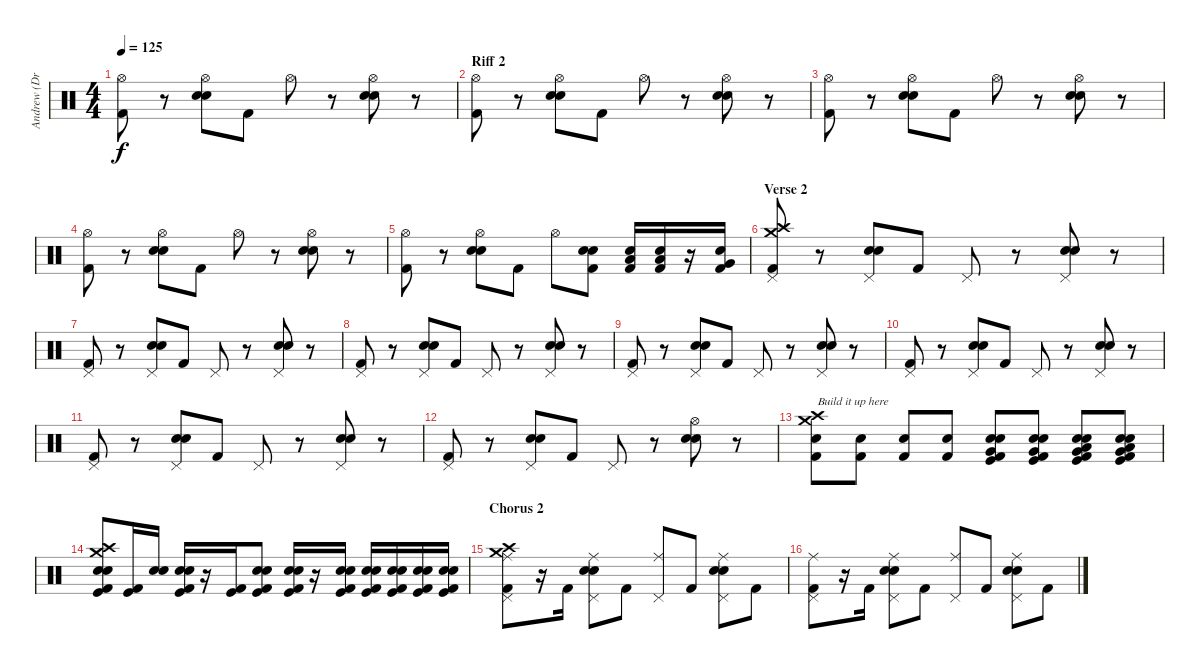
\track ("Andrew (Drums)" "Andrew (Dr") {instrument percussion}
\staff {score}
\articulation defaults
\ts (4 4)
\tempo 125
\clef neutral
\ks c
("Hi-Hat (open)" "Kick (hit) 2").8{dy f} r.8 ("Hi-Hat (open)" "Snare (hit) 2" "Electric Snare (hit)").8 "Kick (hit) 2".8 "Hi-Hat (open)".8 r.8 ("Hi-Hat (open)" "Snare (hit) 2" "Electric Snare (hit)").8 r.8 |
\section ("" "Riff 2")
("Hi-Hat (open)" "Kick (hit) 2").8 r.8 ("Hi-Hat (open)" "Snare (hit) 2" "Electric Snare (hit)").8 "Kick (hit) 2".8 "Hi-Hat (open)".8 r.8 ("Hi-Hat (open)" "Snare (hit) 2" "Electric Snare (hit)").8 r.8 |
("Hi-Hat (open)" "Kick (hit) 2").8 r.8 ("Hi-Hat (open)" "Snare (hit) 2" "Electric Snare (hit)").8 "Kick (hit) 2".8 "Hi-Hat (open)".8 r.8 ("Hi-Hat (open)" "Snare (hit) 2" "Electric Snare (hit)").8 r.8 |
("Hi-Hat (open)" "Kick (hit) 2").8 r.8 ("Hi-Hat (open)" "Snare (hit) 2" "Electric Snare (hit)").8 "Kick (hit) 2".8 "Hi-Hat (open)".8 r.8 ("Hi-Hat (open)" "Snare (hit) 2" "Electric Snare (hit)").8 r.8 |
("Hi-Hat (open)" "Kick (hit) 2").8 r.8 ("Hi-Hat (open)" "Snare (hit) 2" "Electric Snare (hit)").8 "Kick (hit) 2".8 "Hi-Hat (open)".8 ("Kick (hit) 2" "Snare (hit) 2" "Electric Snare (hit)").8 ("Kick (hit) 2" "Low Tom (hit)" "Electric Snare (hit)").16 ("Kick (hit) 2" "Low Tom (hit)" "Electric Snare (hit)").16 r.16 ("Kick (hit) 2" "Very Low Tom (hit)" "Electric Snare (hit)").16 |
\section ("" "Verse 2")
("Crash high (hit)" "Crash medium (hit)" "Pedal Hi-Hat (hit)" "Kick (hit) 2").8 r.8 ("Pedal Hi-Hat (hit)" "Snare (hit) 2" "Electric Snare (hit)").8 "Kick (hit) 2".8 "Pedal Hi-Hat (hit)".8 r.8 ("Pedal Hi-Hat (hit)" "Snare (hit) 2" "Electric Snare (hit)").8 r.8 |
("Pedal Hi-Hat (hit)" "Kick (hit) 2").8 r.8 ("Pedal Hi-Hat (hit)" "Snare (hit) 2" "Electric Snare (hit)").8 "Kick (hit) 2".8 "Pedal Hi-Hat (hit)".8 r.8 ("Pedal Hi-Hat (hit)" "Snare (hit) 2" "Electric Snare (hit)").8 r.8 |
("Pedal Hi-Hat (hit)" "Kick (hit) 2").8 r.8 ("Pedal Hi-Hat (hit)" "Snare (hit) 2" "Electric Snare (hit)").8 "Kick (hit) 2".8 "Pedal Hi-Hat (hit)".8 r.8 ("Pedal Hi-Hat (hit)" "Snare (hit) 2" "Electric Snare (hit)").8 r.8 |
("Pedal Hi-Hat (hit)" "Kick (hit) 2").8 r.8 ("Pedal Hi-Hat (hit)" "Snare (hit) 2" "Electric Snare (hit)").8 "Kick (hit) 2".8 "Pedal Hi-Hat (hit)".8 r.8 ("Pedal Hi-Hat (hit)" "Snare (hit) 2" "Electric Snare (hit)").8 r.8 |
("Pedal Hi-Hat (hit)" "Kick (hit) 2").8 r.8 ("Pedal Hi-Hat (hit)" "Snare (hit) 2" "Electric Snare (hit)").8 "Kick (hit) 2".8 "Pedal Hi-Hat (hit)".8 r.8 ("Pedal Hi-Hat (hit)" "Snare (hit) 2" "Electric Snare (hit)").8 r.8 |
("Pedal Hi-Hat (hit)" "Kick (hit) 2").8 r.8 ("Pedal Hi-Hat (hit)" "Snare (hit) 2" "Electric Snare (hit)").8 "Kick (hit) 2".8 "Pedal Hi-Hat (hit)".8 r.8 ("Pedal Hi-Hat (hit)" "Snare (hit) 2" "Electric Snare (hit)").8 r.8 |
("Pedal Hi-Hat (hit)" "Kick (hit) 2").8 r.8 ("Pedal Hi-Hat (hit)" "Snare (hit) 2" "Electric Snare (hit)").8 "Kick (hit) 2".8 "Pedal Hi-Hat (hit)".8 r.8 ("Hi-Hat (open)" "Snare (hit) 2" "Electric Snare (hit)").8 r.8 |
("Crash high (hit)" "Crash medium (hit)" "Snare (hit) 2" "Kick (hit) 2").8{txt "Build it up here"} ("Snare (hit) 2" "Kick (hit) 2").8 ("Snare (hit) 2" "Kick (hit) 2").8 ("Snare (hit) 2" "Kick (hit) 2").8 ("Very Low Tom (hit)" "Electric Snare (hit)" "Snare (hit) 2" "Kick (hit)" "Kick (hit) 2").8 ("Very Low Tom (hit)" "Electric Snare (hit)" "Snare (hit) 2" "Kick (hit)" "Kick (hit) 2").8 ("Low Floor Tom (hit)" "Very Low Tom (hit)" "Electric Snare (hit)" "Snare (hit) 2" "Kick (hit)" "Kick (hit) 2").8 ("Low Floor Tom (hit)" "Very Low Tom (hit)" "Electric Snare (hit)" "Snare (hit) 2" "Kick (hit)" "Kick (hit) 2").8 |
("Crash high (hit)" "Crash medium (hit)" "Snare (hit) 2" "Electric Snare (hit)" "Kick (hit)" "Kick (hit) 2").8 ("Kick (hit)" "Kick (hit) 2").16 ("Snare (hit) 2" "Electric Snare (hit)").16 ("Snare (hit) 2" "Electric Snare (hit)" "Kick (hit)" "Kick (hit) 2").16 r.16 ("Kick (hit)" "Kick (hit) 2").16 ("Snare (hit) 2" "Electric Snare (hit)" "Kick (hit)" "Kick (hit) 2").8 ("Snare (hit) 2" "Electric Snare (hit)" "Kick (hit)" "Kick (hit) 2").16 r.16 ("Snare (hit) 2" "Electric Snare (hit)" "Kick (hit)" "Kick (hit) 2").16 ("Snare (hit) 2" "Electric Snare (hit)" "Kick (hit)" "Kick (hit) 2").16 ("Snare (hit) 2" "Electric Snare (hit)" "Kick (hit)" "Kick (hit) 2").16 ("Snare (hit) 2" "Electric Snare (hit)" "Kick (hit)" "Kick (hit) 2").16 ("Snare (hit) 2" "Electric Snare (hit)" "Kick (hit)" "Kick (hit) 2").16 |
\section ("" "Chorus 2")
("Crash medium (hit)" "Crash high (hit)" "Pedal Hi-Hat (hit)" "Ride (middle)" "Kick (hit) 2").8 r.16 "Kick (hit) 2".16 ("Pedal Hi-Hat (hit)" "Ride (middle)" "Snare (hit) 2" "Electric Snare (hit)").8 "Kick (hit) 2".8 ("Pedal Hi-Hat (hit)" "Ride (middle)").8 "Kick (hit) 2".8 ("Pedal Hi-Hat (hit)" "Ride (middle)" "Snare (hit) 2" "Electric Snare (hit)").8 "Kick (hit) 2".8 |
("Pedal Hi-Hat (hit)" "Ride (middle)" "Kick (hit) 2").8 r.16 "Kick (hit) 2".16 ("Pedal Hi-Hat (hit)" "Ride (middle)" "Snare (hit) 2" "Electric Snare (hit)").8 "Kick (hit) 2".8 ("Pedal Hi-Hat (hit)" "Ride (middle)").8 "Kick (hit) 2".8 ("Pedal Hi-Hat (hit)" "Ride (middle)" "Snare (hit) 2" "Electric Snare (hit)").8 "Kick (hit) 2".8
